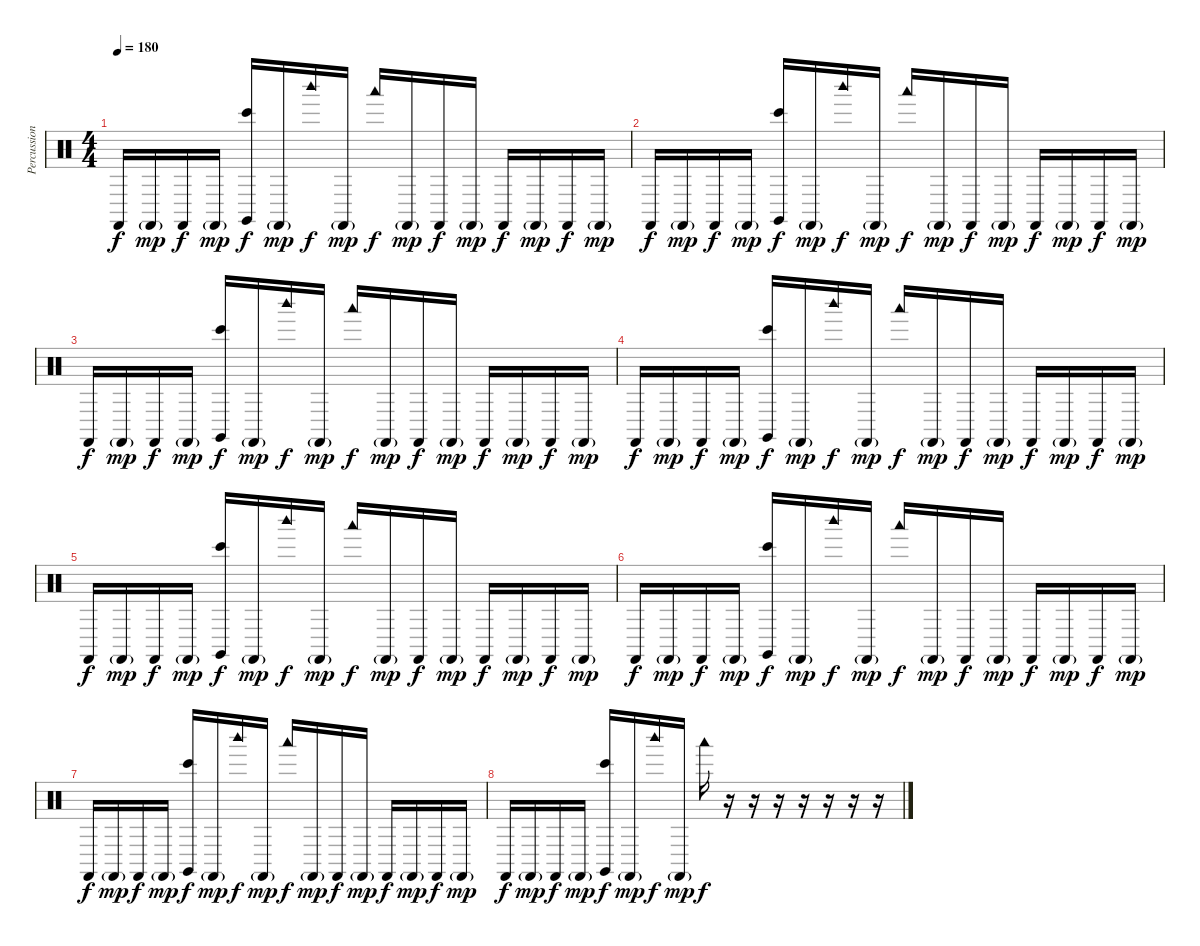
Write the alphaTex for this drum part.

\track ("Percussions" "Percussion") {instrument percussion}
\staff {score}
\articulation defaults
\ts (4 4)
\tempo 180
\clef neutral
\ks c "Castanets (hit)".16{dy f} "Castanets (hit)"{g}.16{dy mp} "Castanets (hit)".16{dy f} "Castanets (hit)"{g}.16{dy mp}
("Bongo High (hit)" "Claves (hit)").16{dy f} "Castanets (hit)"{g}.16{dy mp} "Woodblock high (hit)".16{dy f} "Castanets (hit)"{g}.16{dy mp} "Woodblock low (hit)".16{dy f} "Castanets (hit)"{g}.16{dy mp} "Castanets (hit)".16{dy f} "Castanets (hit)"{g}.16{dy mp} "Castanets (hit)".16{dy f} "Castanets (hit)"{g}.16{dy mp} "Castanets (hit)".16{dy f} "Castanets (hit)"{g}.16{dy mp} |
"Castanets (hit)".16{dy f} "Castanets (hit)"{g}.16{dy mp} "Castanets (hit)".16{dy f} "Castanets (hit)"{g}.16{dy mp} ("Bongo High (hit)" "Claves (hit)").16{dy f} "Castanets (hit)"{g}.16{dy mp} "Woodblock high (hit)".16{dy f} "Castanets (hit)"{g}.16{dy mp} "Woodblock low (hit)".16{dy f} "Castanets (hit)"{g}.16{dy mp} "Castanets (hit)".16{dy f} "Castanets (hit)"{g}.16{dy mp} "Castanets (hit)".16{dy f} "Castanets (hit)"{g}.16{dy mp} "Castanets (hit)".16{dy f} "Castanets (hit)"{g}.16{dy mp} |
"Castanets (hit)".16{dy f} "Castanets (hit)"{g}.16{dy mp} "Castanets (hit)".16{dy f} "Castanets (hit)"{g}.16{dy mp} ("Bongo High (hit)" "Claves (hit)").16{dy f} "Castanets (hit)"{g}.16{dy mp} "Woodblock high (hit)".16{dy f} "Castanets (hit)"{g}.16{dy mp} "Woodblock low (hit)".16{dy f} "Castanets (hit)"{g}.16{dy mp} "Castanets (hit)".16{dy f} "Castanets (hit)"{g}.16{dy mp} "Castanets (hit)".16{dy f} "Castanets (hit)"{g}.16{dy mp} "Castanets (hit)".16{dy f} "Castanets (hit)"{g}.16{dy mp} |
"Castanets (hit)".16{dy f} "Castanets (hit)"{g}.16{dy mp} "Castanets (hit)".16{dy f} "Castanets (hit)"{g}.16{dy mp} ("Bongo High (hit)" "Claves (hit)").16{dy f} "Castanets (hit)"{g}.16{dy mp} "Woodblock high (hit)".16{dy f} "Castanets (hit)"{g}.16{dy mp} "Woodblock low (hit)".16{dy f} "Castanets (hit)"{g}.16{dy mp} "Castanets (hit)".16{dy f} "Castanets (hit)"{g}.16{dy mp} "Castanets (hit)".16{dy f} "Castanets (hit)"{g}.16{dy mp} "Castanets (hit)".16{dy f} "Castanets (hit)"{g}.16{dy mp} |
"Castanets (hit)".16{dy f} "Castanets (hit)"{g}.16{dy mp} "Castanets (hit)".16{dy f} "Castanets (hit)"{g}.16{dy mp} ("Bongo High (hit)" "Claves (hit)").16{dy f} "Castanets (hit)"{g}.16{dy mp} "Woodblock high (hit)".16{dy f} "Castanets (hit)"{g}.16{dy mp} "Woodblock low (hit)".16{dy f} "Castanets (hit)"{g}.16{dy mp} "Castanets (hit)".16{dy f} "Castanets (hit)"{g}.16{dy mp} "Castanets (hit)".16{dy f} "Castanets (hit)"{g}.16{dy mp} "Castanets (hit)".16{dy f} "Castanets (hit)"{g}.16{dy mp} |
"Castanets (hit)".16{dy f} "Castanets (hit)"{g}.16{dy mp} "Castanets (hit)".16{dy f} "Castanets (hit)"{g}.16{dy mp} ("Bongo High (hit)" "Claves (hit)").16{dy f} "Castanets (hit)"{g}.16{dy mp} "Woodblock high (hit)".16{dy f} "Castanets (hit)"{g}.16{dy mp} "Woodblock low (hit)".16{dy f} "Castanets (hit)"{g}.16{dy mp} "Castanets (hit)".16{dy f} "Castanets (hit)"{g}.16{dy mp} "Castanets (hit)".16{dy f} "Castanets (hit)"{g}.16{dy mp} "Castanets (hit)".16{dy f} "Castanets (hit)"{g}.16{dy mp} |
"Castanets (hit)".16{dy f} "Castanets (hit)"{g}.16{dy mp} "Castanets (hit)".16{dy f} "Castanets (hit)"{g}.16{dy mp} ("Bongo High (hit)" "Claves (hit)").16{dy f} "Castanets (hit)"{g}.16{dy mp} "Woodblock high (hit)".16{dy f} "Castanets (hit)"{g}.16{dy mp} "Woodblock low (hit)".16{dy f} "Castanets (hit)"{g}.16{dy mp} "Castanets (hit)".16{dy f} "Castanets (hit)"{g}.16{dy mp} "Castanets (hit)".16{dy f} "Castanets (hit)"{g}.16{dy mp} "Castanets (hit)".16{dy f} "Castanets (hit)"{g}.16{dy mp} |
"Castanets (hit)".16{dy f} "Castanets (hit)"{g}.16{dy mp} "Castanets (hit)".16{dy f} "Castanets (hit)"{g}.16{dy mp} ("Bongo High (hit)" "Claves (hit)").16{dy f} "Castanets (hit)"{g}.16{dy mp} "Woodblock high (hit)".16{dy f} "Castanets (hit)"{g}.16{dy mp} "Woodblock low (hit)".16{dy f} r.16 r.16 r.16 r.16 r.16 r.16 r.16
